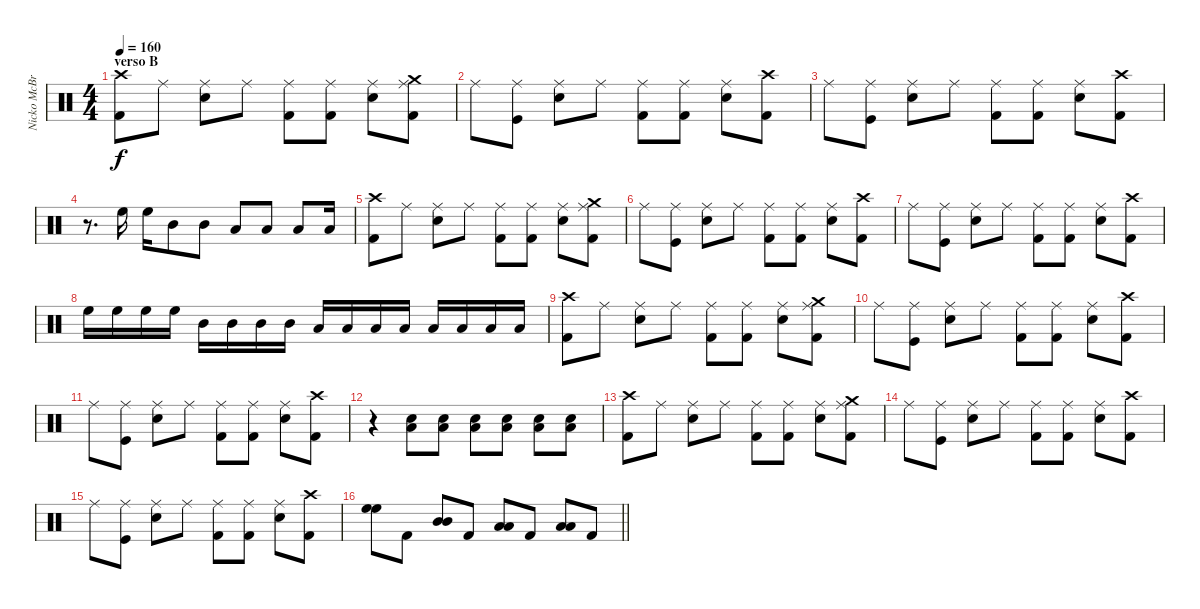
\track ("Nicko McBrain" "Nicko McBr") {instrument percussion}
\staff {score}
\articulation defaults
\ts (4 4)
\section ("" "verso B")
\tempo 160
\clef neutral
\ks c
("Crash high (hit)" "Kick (hit) 2").8{dy f} "Ride (middle)".8 ("Ride (middle)" "Snare (hit) 2").8 "Ride (middle)".8 ("Ride (middle)" "Kick (hit) 2").8 ("Ride (middle)" "Kick (hit) 2").8 ("Ride (middle)" "Snare (hit) 2").8 ("Ride (middle)" "Crash medium (hit)" "Kick (hit) 2").8 |
"Ride (middle)".8 ("Ride (middle)" "Kick (hit)").8 ("Ride (middle)" "Snare (hit) 2").8 "Ride (middle)".8 ("Ride (middle)" "Kick (hit) 2").8 ("Ride (middle)" "Kick (hit) 2").8 ("Ride (middle)" "Snare (hit) 2").8 ("Crash high (hit)" "Kick (hit) 2").8 |
"Ride (middle)".8 ("Ride (middle)" "Kick (hit)").8 ("Ride (middle)" "Snare (hit) 2").8 "Ride (middle)".8 ("Ride (middle)" "Kick (hit) 2").8 ("Ride (middle)" "Kick (hit) 2").8 ("Ride (middle)" "Snare (hit) 2").8 ("Crash high (hit)" "Kick (hit) 2").8 |
r.8{d} "High Floor Tom (hit)".16 "High Floor Tom (hit)".16 "Mid Tom (hit)".8 "Mid Tom (hit)".8 "Low Tom (hit)".8 "Low Tom (hit)".8 "Low Floor Tom (hit)".8 "Low Floor Tom (hit)".16 |
("Crash high (hit)" "Kick (hit) 2").8 "Ride (middle)".8 ("Ride (middle)" "Snare (hit) 2").8 "Ride (middle)".8 ("Ride (middle)" "Kick (hit) 2").8 ("Ride (middle)" "Kick (hit) 2").8 ("Ride (middle)" "Snare (hit) 2").8 ("Ride (middle)" "Crash medium (hit)" "Kick (hit) 2").8 |
"Ride (middle)".8 ("Ride (middle)" "Kick (hit)").8 ("Ride (middle)" "Snare (hit) 2").8 "Ride (middle)".8 ("Ride (middle)" "Kick (hit) 2").8 ("Ride (middle)" "Kick (hit) 2").8 ("Ride (middle)" "Snare (hit) 2").8 ("Crash high (hit)" "Kick (hit) 2").8 |
"Ride (middle)".8 ("Ride (middle)" "Kick (hit)").8 ("Ride (middle)" "Snare (hit) 2").8 "Ride (middle)".8 ("Ride (middle)" "Kick (hit) 2").8 ("Ride (middle)" "Kick (hit) 2").8 ("Ride (middle)" "Snare (hit) 2").8 ("Crash high (hit)" "Kick (hit) 2").8 |
"High Floor Tom (hit)".16 "High Floor Tom (hit)".16 "High Floor Tom (hit)".16 "High Floor Tom (hit)".16 "Mid Tom (hit)".16 "Mid Tom (hit)".16 "Mid Tom (hit)".16 "Mid Tom (hit)".16 "Low Tom (hit)".16 "Low Tom (hit)".16 "Low Tom (hit)".16 "Low Tom (hit)".16 "Low Floor Tom (hit)".16 "Low Floor Tom (hit)".16 "Low Floor Tom (hit)".16 "Low Floor Tom (hit)".16 |
("Crash high (hit)" "Kick (hit) 2").8 "Ride (middle)".8 ("Ride (middle)" "Snare (hit) 2").8 "Ride (middle)".8 ("Ride (middle)" "Kick (hit) 2").8 ("Ride (middle)" "Kick (hit) 2").8 ("Ride (middle)" "Snare (hit) 2").8 ("Ride (middle)" "Crash medium (hit)" "Kick (hit) 2").8 |
"Ride (middle)".8 ("Ride (middle)" "Kick (hit)").8 ("Ride (middle)" "Snare (hit) 2").8 "Ride (middle)".8 ("Ride (middle)" "Kick (hit) 2").8 ("Ride (middle)" "Kick (hit) 2").8 ("Ride (middle)" "Snare (hit) 2").8 ("Crash high (hit)" "Kick (hit) 2").8 |
"Ride (middle)".8 ("Ride (middle)" "Kick (hit)").8 ("Ride (middle)" "Snare (hit) 2").8 "Ride (middle)".8 ("Ride (middle)" "Kick (hit) 2").8 ("Ride (middle)" "Kick (hit) 2").8 ("Ride (middle)" "Snare (hit) 2").8 ("Crash high (hit)" "Kick (hit) 2").8 |
r.4 ("Snare (hit) 2" "Low Floor Tom (hit)").8 ("Snare (hit) 2" "Low Floor Tom (hit)").8 ("Snare (hit) 2" "Low Floor Tom (hit)").8 ("Snare (hit) 2" "Low Floor Tom (hit)").8 ("Snare (hit) 2" "Low Floor Tom (hit)").8 ("Snare (hit) 2" "Low Floor Tom (hit)").8 |
("Crash high (hit)" "Kick (hit) 2").8 "Ride (middle)".8 ("Ride (middle)" "Snare (hit) 2").8 "Ride (middle)".8 ("Ride (middle)" "Kick (hit) 2").8 ("Ride (middle)" "Kick (hit) 2").8 ("Ride (middle)" "Snare (hit) 2").8 ("Ride (middle)" "Crash medium (hit)" "Kick (hit) 2").8 |
"Ride (middle)".8 ("Ride (middle)" "Kick (hit)").8 ("Ride (middle)" "Snare (hit) 2").8 "Ride (middle)".8 ("Ride (middle)" "Kick (hit) 2").8 ("Ride (middle)" "Kick (hit) 2").8 ("Ride (middle)" "Snare (hit) 2").8 ("Crash high (hit)" "Kick (hit) 2").8 |
"Ride (middle)".8 ("Ride (middle)" "Kick (hit)").8 ("Ride (middle)" "Snare (hit) 2").8 "Ride (middle)".8 ("Ride (middle)" "Kick (hit) 2").8 ("Ride (middle)" "Kick (hit) 2").8 ("Ride (middle)" "Snare (hit) 2").8 ("Crash high (hit)" "Kick (hit) 2").8 |
\barLineRight lightlight
("High Floor Tom (hit)" "High Floor Tom (hit)").8 "Kick (hit) 2".8 ("Mid Tom (hit)" "Mid Tom (hit)").8 "Kick (hit) 2".8 ("Low Tom (hit)" "Low Tom (hit)").8 "Kick (hit) 2".8 ("Low Floor Tom (hit)" "Low Floor Tom (hit)").8 "Kick (hit) 2".8
